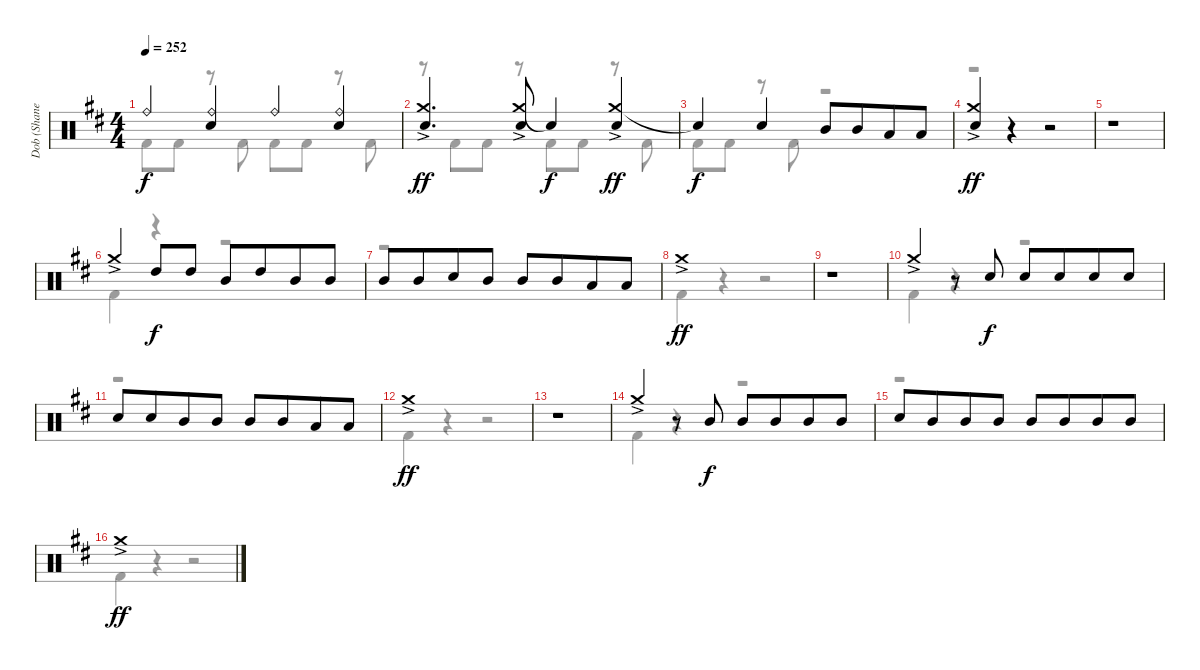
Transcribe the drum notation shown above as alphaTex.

\track ("Dob (Shane Gaalaas)" "Dob (Shane") {instrument percussion}
\staff {score}
\articulation defaults
\voice
\ts (4 4)
\tempo 252
\clef neutral
\ks d "Ride (bell)".4{dy f}
("Ride (bell)" "Electric Snare (hit)").4 "Ride (bell)".4 ("Ride (bell)" "Electric Snare (hit)").4 |
("Crash medium (hit)"{ac} "Electric Snare (hit)").4{d dy ff} ("Crash medium (hit)"{ac} "Electric Snare (hit)").8 "Snare (hit)"{t}.4{dy f} ("Crash medium (hit)"{ac} "Electric Snare (hit)").4{dy ff} |
"Snare (hit)"{t}.4{dy f} "Electric Snare (hit)".4 "Mid Tom (hit)".8 "Mid Tom (hit)".8{beam merge} "Low Tom (hit)".8 "Low Tom (hit)".8 |
("Crash medium (hit)"{ac} "Electric Snare (hit)").4{dy ff} r.4 r.2 |
r.1 |
"Crash medium (hit)"{ac}.4 "High Tom (hit)".8{dy f} "High Tom (hit)".8 "Mid Tom (hit)".8 "High Tom (hit)".8{beam merge} "Mid Tom (hit)".8 "Mid Tom (hit)".8 |
"Mid Tom (hit)".8 "Mid Tom (hit)".8{beam merge} "Electric Snare (hit)".8 "Mid Tom (hit)".8 "Mid Tom (hit)".8 "Mid Tom (hit)".8{beam merge} "Low Tom (hit)".8 "Low Tom (hit)".8 |
"Crash medium (hit)"{ac}.1{dy ff} |
r.1 |
"Crash medium (hit)"{ac}.4 r.8 "Electric Snare (hit)".8{dy f} "Electric Snare (hit)".8 "Electric Snare (hit)".8{beam merge} "Electric Snare (hit)".8 "Electric Snare (hit)".8 |
"Electric Snare (hit)".8 "Electric Snare (hit)".8{beam merge} "Mid Tom (hit)".8 "Mid Tom (hit)".8 "Mid Tom (hit)".8 "Mid Tom (hit)".8{beam merge} "Low Tom (hit)".8 "Low Tom (hit)".8 |
"Crash medium (hit)"{ac}.1{dy ff} |
r.1 |
"Crash medium (hit)"{ac}.4 r.8 "Mid Tom (hit)".8{dy f} "Mid Tom (hit)".8 "Mid Tom (hit)".8{beam merge} "Mid Tom (hit)".8 "Mid Tom (hit)".8 |
"Electric Snare (hit)".8 "Mid Tom (hit)".8{beam merge} "Mid Tom (hit)".8 "Mid Tom (hit)".8 "Mid Tom (hit)".8 "Mid Tom (hit)".8{beam merge} "Mid Tom (hit)".8 "Mid Tom (hit)".8 |
"Crash medium (hit)"{ac}.1{dy ff}
\voice
\clef neutral
\ottava regular
\simile none
\ks d "Kick (hit) 2".8{dy f} "Kick (hit) 2".8
r.8 "Kick (hit) 2".8 "Kick (hit) 2".8 "Kick (hit) 2".8 r.8 "Kick (hit) 2".8 |
r.8 "Kick (hit) 2".8{beam merge} "Kick (hit) 2".8 r.8 "Kick (hit) 2".8 "Kick (hit) 2".8 r.8 "Kick (hit) 2".8 |
"Kick (hit) 2".8 "Kick (hit) 2".8 r.8 "Kick (hit) 2".8 r.2 |
r.1 |
r.1 |
"Kick (hit) 2".4 r.4 r.2 |
r.1 |
"Kick (hit) 2".4 r.4 r.2 |
r.1 |
"Kick (hit) 2".4 r.4 r.2 |
r.1 |
"Kick (hit) 2".4 r.4 r.2 |
r.1 |
"Kick (hit) 2".4 r.4 r.2 |
r.1 |
"Kick (hit) 2".4 r.4 r.2
